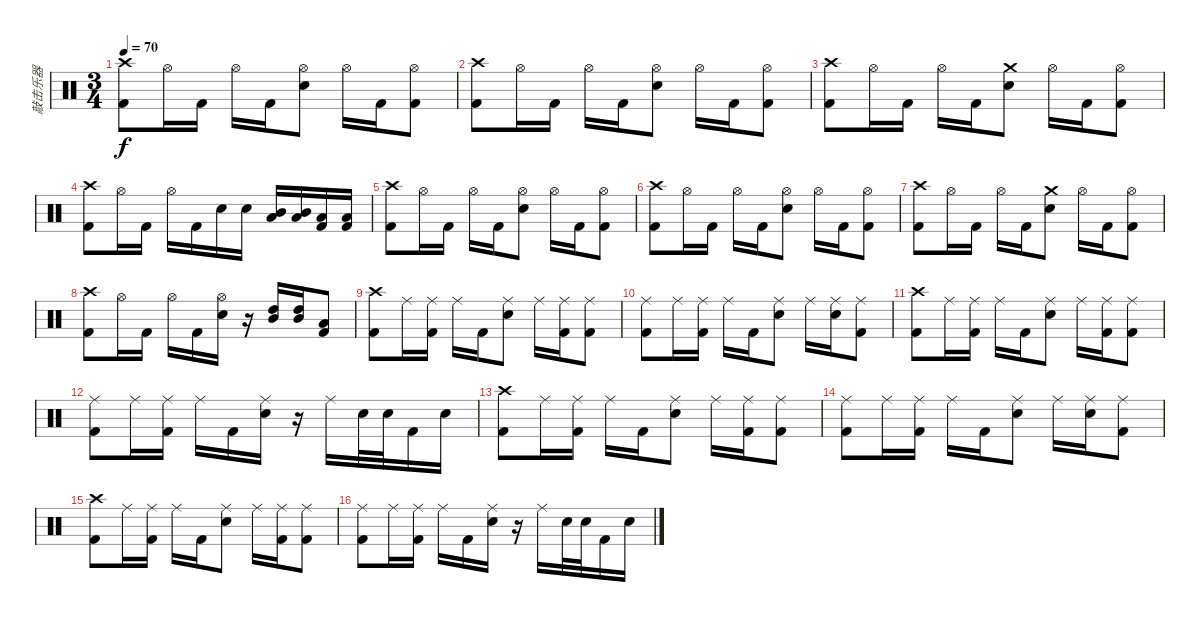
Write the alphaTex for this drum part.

\track ("敲击乐器" "敲击乐器") {instrument percussion}
\staff {score}
\articulation defaults
\ts (3 4)
\tempo 70
\clef neutral
\ks c
("Crash high (hit)" "Kick (hit) 2").8{dy f} "Hi-Hat (open)".16 "Kick (hit) 2".16 "Hi-Hat (open)".16 "Kick (hit) 2".16 ("Snare (hit) 2" "Hi-Hat (open)").8 "Hi-Hat (open)".16 "Kick (hit) 2".16 ("Kick (hit) 2" "Hi-Hat (open)").8 |
("Crash high (hit)" "Kick (hit) 2").8 "Hi-Hat (open)".16 "Kick (hit) 2".16 "Hi-Hat (open)".16 "Kick (hit) 2".16 ("Snare (hit) 2" "Hi-Hat (open)").8 "Hi-Hat (open)".16 "Kick (hit) 2".16 ("Kick (hit) 2" "Hi-Hat (open)").8 |
("Crash high (hit)" "Kick (hit) 2").8 "Hi-Hat (open)".16 "Kick (hit) 2".16 "Hi-Hat (open)".16 "Kick (hit) 2".16 ("Snare (hit) 2" "Crash medium (hit)").8 "Hi-Hat (open)".16 "Kick (hit) 2".16 ("Kick (hit) 2" "Hi-Hat (open)").8 |
("Crash high (hit)" "Kick (hit) 2").8 "Hi-Hat (open)".16 "Kick (hit) 2".16 "Hi-Hat (open)".16 "Kick (hit) 2".16 "Snare (hit) 2".16 "Snare (hit) 2".16 ("Low Tom (hit)" "Mid Tom (hit)").16 ("Low Tom (hit)" "Mid Tom (hit)").16 ("Low Floor Tom (hit)" "Kick (hit) 2").16 ("Low Floor Tom (hit)" "Kick (hit) 2").16 |
("Crash high (hit)" "Kick (hit) 2").8 "Hi-Hat (open)".16 "Kick (hit) 2".16 "Hi-Hat (open)".16 "Kick (hit) 2".16 ("Snare (hit) 2" "Hi-Hat (open)").8 "Hi-Hat (open)".16 "Kick (hit) 2".16 ("Kick (hit) 2" "Hi-Hat (open)").8 |
("Crash high (hit)" "Kick (hit) 2").8 "Hi-Hat (open)".16 "Kick (hit) 2".16 "Hi-Hat (open)".16 "Kick (hit) 2".16 ("Snare (hit) 2" "Hi-Hat (open)").8 "Hi-Hat (open)".16 "Kick (hit) 2".16 ("Kick (hit) 2" "Hi-Hat (open)").8 |
("Crash high (hit)" "Kick (hit) 2").8 "Hi-Hat (open)".16 "Kick (hit) 2".16 "Hi-Hat (open)".16 "Kick (hit) 2".16 ("Snare (hit) 2" "Crash medium (hit)").8 "Hi-Hat (open)".16 "Kick (hit) 2".16 ("Kick (hit) 2" "Hi-Hat (open)").8 |
("Crash high (hit)" "Kick (hit) 2").8 "Hi-Hat (open)".16 "Kick (hit) 2".16 "Hi-Hat (open)".16 "Kick (hit) 2".16 ("Snare (hit) 2" "Hi-Hat (open)").16 r.16 ("Mid Tom (hit)" "High Tom (hit)").16 ("Mid Tom (hit)" "High Tom (hit)").16 ("Kick (hit) 2" "Low Tom (hit)").8 |
("Crash high (hit)" "Kick (hit) 2").8 "Ride (middle)".16 ("Ride (middle)" "Kick (hit) 2").16 "Ride (middle)".16 "Kick (hit) 2".16 ("Ride (middle)" "Snare (hit) 2").8 "Ride (middle)".16 ("Kick (hit) 2" "Ride (middle)").16 ("Kick (hit) 2" "Ride (middle)").8 |
("Ride (middle)" "Kick (hit) 2").8 "Ride (middle)".16 ("Ride (middle)" "Kick (hit) 2").16 "Ride (middle)".16 "Kick (hit) 2".16 ("Snare (hit) 2" "Ride (middle)").8 "Ride (middle)".16 ("Snare (hit) 2" "Ride (middle)").16 ("Kick (hit) 2" "Ride (middle)").8 |
("Crash high (hit)" "Kick (hit) 2").8 "Ride (middle)".16 ("Ride (middle)" "Kick (hit) 2").16 "Ride (middle)".16 "Kick (hit) 2".16 ("Snare (hit) 2" "Ride (middle)").8 "Ride (middle)".16 ("Kick (hit) 2" "Ride (middle)").16 ("Kick (hit) 2" "Ride (middle)").8 |
("Ride (middle)" "Kick (hit) 2").8 "Ride (middle)".16 ("Ride (middle)" "Kick (hit) 2").16 "Ride (middle)".16 "Kick (hit) 2".16 ("Ride (middle)" "Snare (hit) 2").16 r.16 "Ride (middle)".16 "Snare (hit) 2".32 "Snare (hit) 2".32 "Kick (hit) 2".16 "Snare (hit) 2".16 |
("Crash high (hit)" "Kick (hit) 2").8 "Ride (middle)".16 ("Ride (middle)" "Kick (hit) 2").16 "Ride (middle)".16 "Kick (hit) 2".16 ("Ride (middle)" "Snare (hit) 2").8 "Ride (middle)".16 ("Kick (hit) 2" "Ride (middle)").16 ("Kick (hit) 2" "Ride (middle)").8 |
("Ride (middle)" "Kick (hit) 2").8 "Ride (middle)".16 ("Ride (middle)" "Kick (hit) 2").16 "Ride (middle)".16 "Kick (hit) 2".16 ("Snare (hit) 2" "Ride (middle)").8 "Ride (middle)".16 ("Snare (hit) 2" "Ride (middle)").16 ("Kick (hit) 2" "Ride (middle)").8 |
("Crash high (hit)" "Kick (hit) 2").8 "Ride (middle)".16 ("Ride (middle)" "Kick (hit) 2").16 "Ride (middle)".16 "Kick (hit) 2".16 ("Snare (hit) 2" "Ride (middle)").8 "Ride (middle)".16 ("Kick (hit) 2" "Ride (middle)").16 ("Kick (hit) 2" "Ride (middle)").8 |
("Ride (middle)" "Kick (hit) 2").8 "Ride (middle)".16 ("Ride (middle)" "Kick (hit) 2").16 "Ride (middle)".16 "Kick (hit) 2".16 ("Ride (middle)" "Snare (hit) 2").16 r.16 "Ride (middle)".16 "Snare (hit) 2".32 "Snare (hit) 2".32 "Kick (hit) 2".16 "Snare (hit) 2".16
